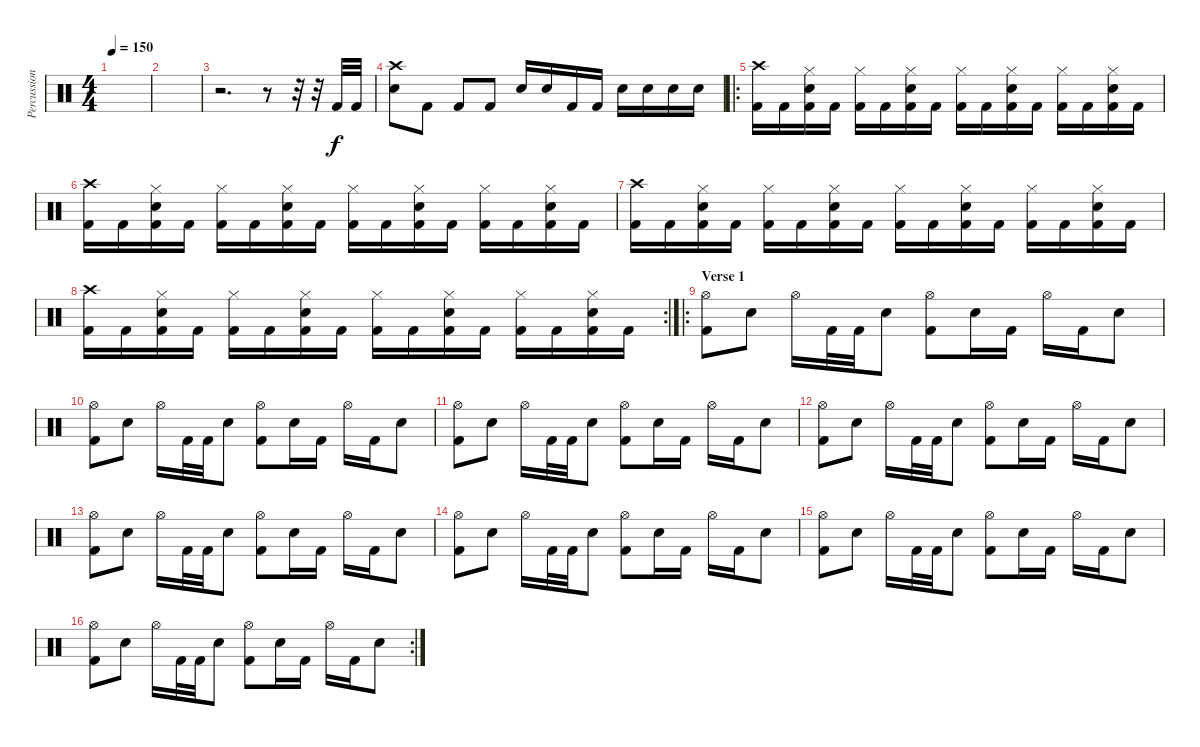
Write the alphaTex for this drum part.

\track ("Percussion" "Percussion") {instrument percussion}
\staff {score}
\articulation defaults
\ts (4 4)
\tempo 150
\clef neutral
\ks c
|
|
r.2{d} r.8 r.32 r.32 "Kick (hit) 2".32 "Kick (hit) 2".32 |
("Crash high (hit)" "Snare (hit) 2").8 "Kick (hit) 2".8 "Kick (hit) 2".8 "Kick (hit) 2".8 "Snare (hit) 2".16 "Snare (hit) 2".16 "Kick (hit) 2".16 "Kick (hit) 2".16 "Snare (hit) 2".16 "Snare (hit) 2".16 "Snare (hit) 2".16 "Snare (hit) 2".16 |
\ro
("Crash high (hit)" "Kick (hit) 2").16 "Kick (hit) 2".16 ("Hi-Hat (closed)" "Snare (hit) 2" "Kick (hit) 2").16 "Kick (hit) 2".16 ("Hi-Hat (closed)" "Kick (hit) 2").16 "Kick (hit) 2".16 ("Hi-Hat (closed)" "Snare (hit) 2" "Kick (hit) 2").16 "Kick (hit) 2".16 ("Hi-Hat (closed)" "Kick (hit) 2").16 "Kick (hit) 2".16 ("Hi-Hat (closed)" "Snare (hit) 2" "Kick (hit) 2").16 "Kick (hit) 2".16 ("Hi-Hat (closed)" "Kick (hit) 2").16 "Kick (hit) 2".16 ("Hi-Hat (closed)" "Snare (hit) 2" "Kick (hit) 2").16 "Kick (hit) 2".16 |
("Crash high (hit)" "Kick (hit) 2").16 "Kick (hit) 2".16 ("Hi-Hat (closed)" "Snare (hit) 2" "Kick (hit) 2").16 "Kick (hit) 2".16 ("Hi-Hat (closed)" "Kick (hit) 2").16 "Kick (hit) 2".16 ("Hi-Hat (closed)" "Snare (hit) 2" "Kick (hit) 2").16 "Kick (hit) 2".16 ("Hi-Hat (closed)" "Kick (hit) 2").16 "Kick (hit) 2".16 ("Hi-Hat (closed)" "Snare (hit) 2" "Kick (hit) 2").16 "Kick (hit) 2".16 ("Hi-Hat (closed)" "Kick (hit) 2").16 "Kick (hit) 2".16 ("Hi-Hat (closed)" "Snare (hit) 2" "Kick (hit) 2").16 "Kick (hit) 2".16 |
("Crash high (hit)" "Kick (hit) 2").16 "Kick (hit) 2".16 ("Hi-Hat (closed)" "Snare (hit) 2" "Kick (hit) 2").16 "Kick (hit) 2".16 ("Hi-Hat (closed)" "Kick (hit) 2").16 "Kick (hit) 2".16 ("Hi-Hat (closed)" "Snare (hit) 2" "Kick (hit) 2").16 "Kick (hit) 2".16 ("Hi-Hat (closed)" "Kick (hit) 2").16 "Kick (hit) 2".16 ("Hi-Hat (closed)" "Snare (hit) 2" "Kick (hit) 2").16 "Kick (hit) 2".16 ("Hi-Hat (closed)" "Kick (hit) 2").16 "Kick (hit) 2".16 ("Hi-Hat (closed)" "Snare (hit) 2" "Kick (hit) 2").16 "Kick (hit) 2".16 |
\rc 2
("Crash high (hit)" "Kick (hit) 2").16 "Kick (hit) 2".16 ("Hi-Hat (closed)" "Snare (hit) 2" "Kick (hit) 2").16 "Kick (hit) 2".16 ("Hi-Hat (closed)" "Kick (hit) 2").16 "Kick (hit) 2".16 ("Hi-Hat (closed)" "Snare (hit) 2" "Kick (hit) 2").16 "Kick (hit) 2".16 ("Hi-Hat (closed)" "Kick (hit) 2").16 "Kick (hit) 2".16 ("Hi-Hat (closed)" "Snare (hit) 2" "Kick (hit) 2").16 "Kick (hit) 2".16 ("Hi-Hat (closed)" "Kick (hit) 2").16 "Kick (hit) 2".16 ("Hi-Hat (closed)" "Snare (hit) 2" "Kick (hit) 2").16 "Kick (hit) 2".16 |
\ro
\section ("" "Verse 1")
("Hi-Hat (open)" "Kick (hit) 2").8 "Snare (hit) 2".8 "Hi-Hat (open)".16 "Kick (hit) 2".32 "Kick (hit) 2".32 "Snare (hit) 2".8 ("Hi-Hat (open)" "Kick (hit) 2").8 "Snare (hit) 2".16 "Kick (hit) 2".16 "Hi-Hat (open)".16 "Kick (hit) 2".16 "Snare (hit) 2".8 |
("Hi-Hat (open)" "Kick (hit) 2").8 "Snare (hit) 2".8 "Hi-Hat (open)".16 "Kick (hit) 2".32 "Kick (hit) 2".32 "Snare (hit) 2".8 ("Hi-Hat (open)" "Kick (hit) 2").8 "Snare (hit) 2".16 "Kick (hit) 2".16 "Hi-Hat (open)".16 "Kick (hit) 2".16 "Snare (hit) 2".8 |
("Hi-Hat (open)" "Kick (hit) 2").8 "Snare (hit) 2".8 "Hi-Hat (open)".16 "Kick (hit) 2".32 "Kick (hit) 2".32 "Snare (hit) 2".8 ("Hi-Hat (open)" "Kick (hit) 2").8 "Snare (hit) 2".16 "Kick (hit) 2".16 "Hi-Hat (open)".16 "Kick (hit) 2".16 "Snare (hit) 2".8 |
("Hi-Hat (open)" "Kick (hit) 2").8 "Snare (hit) 2".8 "Hi-Hat (open)".16 "Kick (hit) 2".32 "Kick (hit) 2".32 "Snare (hit) 2".8 ("Hi-Hat (open)" "Kick (hit) 2").8 "Snare (hit) 2".16 "Kick (hit) 2".16 "Hi-Hat (open)".16 "Kick (hit) 2".16 "Snare (hit) 2".8 |
("Hi-Hat (open)" "Kick (hit) 2").8 "Snare (hit) 2".8 "Hi-Hat (open)".16 "Kick (hit) 2".32 "Kick (hit) 2".32 "Snare (hit) 2".8 ("Hi-Hat (open)" "Kick (hit) 2").8 "Snare (hit) 2".16 "Kick (hit) 2".16 "Hi-Hat (open)".16 "Kick (hit) 2".16 "Snare (hit) 2".8 |
("Hi-Hat (open)" "Kick (hit) 2").8 "Snare (hit) 2".8 "Hi-Hat (open)".16 "Kick (hit) 2".32 "Kick (hit) 2".32 "Snare (hit) 2".8 ("Hi-Hat (open)" "Kick (hit) 2").8 "Snare (hit) 2".16 "Kick (hit) 2".16 "Hi-Hat (open)".16 "Kick (hit) 2".16 "Snare (hit) 2".8 |
("Hi-Hat (open)" "Kick (hit) 2").8 "Snare (hit) 2".8 "Hi-Hat (open)".16 "Kick (hit) 2".32 "Kick (hit) 2".32 "Snare (hit) 2".8 ("Hi-Hat (open)" "Kick (hit) 2").8 "Snare (hit) 2".16 "Kick (hit) 2".16 "Hi-Hat (open)".16 "Kick (hit) 2".16 "Snare (hit) 2".8 |
\rc 2
("Hi-Hat (open)" "Kick (hit) 2").8 "Snare (hit) 2".8 "Hi-Hat (open)".16 "Kick (hit) 2".32 "Kick (hit) 2".32 "Snare (hit) 2".8 ("Hi-Hat (open)" "Kick (hit) 2").8 "Snare (hit) 2".16 "Kick (hit) 2".16 "Hi-Hat (open)".16 "Kick (hit) 2".16 "Snare (hit) 2".8
